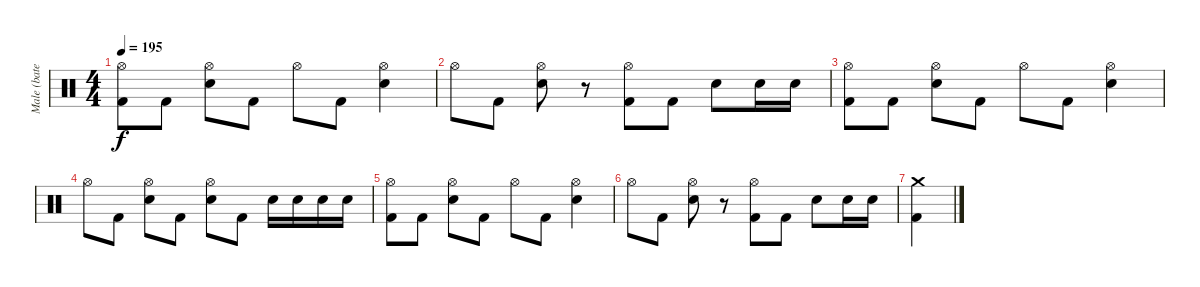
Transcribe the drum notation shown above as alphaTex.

\track ("Male (bateria)" "Male (bate") {instrument percussion}
\staff {score}
\articulation defaults
\ts (4 4)
\tempo 195
\clef neutral
\ks c
("Kick (hit) 2" "Hi-Hat (open)").8{dy f} "Kick (hit) 2".8 ("Electric Snare (hit)" "Hi-Hat (open)").8 "Kick (hit) 2".8 "Hi-Hat (open)".8 "Kick (hit) 2".8 ("Electric Snare (hit)" "Hi-Hat (open)").4 |
"Hi-Hat (open)".8 "Kick (hit) 2".8 ("Electric Snare (hit)" "Hi-Hat (open)").8 r.8 ("Kick (hit) 2" "Hi-Hat (open)").8 "Kick (hit) 2".8 "Electric Snare (hit)".8 "Electric Snare (hit)".16 "Electric Snare (hit)".16 |
("Kick (hit) 2" "Hi-Hat (open)").8 "Kick (hit) 2".8 ("Electric Snare (hit)" "Hi-Hat (open)").8 "Kick (hit) 2".8 "Hi-Hat (open)".8 "Kick (hit) 2".8 ("Electric Snare (hit)" "Hi-Hat (open)").4 |
"Hi-Hat (open)".8 "Kick (hit) 2".8 ("Electric Snare (hit)" "Hi-Hat (open)").8 "Kick (hit) 2".8 ("Electric Snare (hit)" "Hi-Hat (open)").8 "Kick (hit) 2".8 "Electric Snare (hit)".16 "Electric Snare (hit)".16 "Electric Snare (hit)".16 "Electric Snare (hit)".16 |
("Kick (hit) 2" "Hi-Hat (open)").8 "Kick (hit) 2".8 ("Electric Snare (hit)" "Hi-Hat (open)").8 "Kick (hit) 2".8 "Hi-Hat (open)".8 "Kick (hit) 2".8 ("Electric Snare (hit)" "Hi-Hat (open)").4 |
"Hi-Hat (open)".8 "Kick (hit) 2".8 ("Electric Snare (hit)" "Hi-Hat (open)").8 r.8 ("Kick (hit) 2" "Hi-Hat (open)").8 "Kick (hit) 2".8 "Electric Snare (hit)".8 "Electric Snare (hit)".16 "Electric Snare (hit)".16 |
("Kick (hit) 2" "Crash medium (hit)").4
